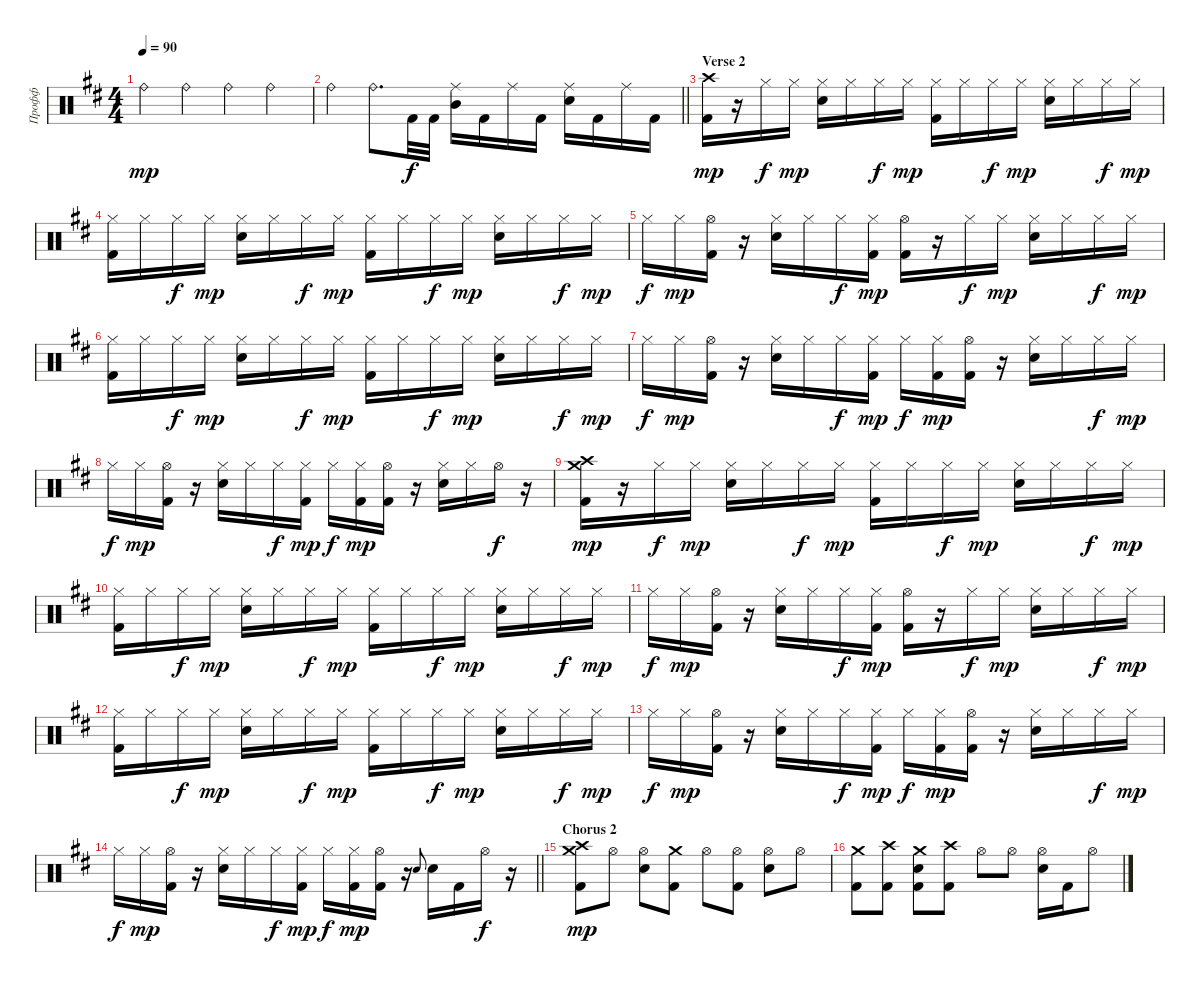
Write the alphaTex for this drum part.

\track ("Профф" "Профф") {instrument percussion}
\staff {score}
\articulation defaults
\ts (4 4)
\tempo 90
\clef neutral
\ks bminor "Ride (bell)".4{dy mp} "Ride (bell)".4 "Ride (bell)".4 "Ride (bell)".4
|
\barLineRight lightlight "Ride (bell)".4 "Ride (bell)".8{d} "Kick (hit) 2".32{dy f} "Kick (hit) 2".32
("Ride (middle)" "Mid Tom (hit)").16 "Kick (hit) 2".16 "Ride (middle)".16 "Kick (hit) 2".16 ("Ride (middle)" "Electric Snare (hit)").16 "Kick (hit) 2".16 "Ride (middle)".16 "Kick (hit) 2".16 |
\section ("" "Verse 2")
("Crash high (hit)" "Kick (hit) 2").16{dy mp} r.16 "Hi-Hat (closed)".16{dy f} "Hi-Hat (closed)".16{dy mp} ("Hi-Hat (closed)" "Electric Snare (hit)").16 "Hi-Hat (closed)".16 "Hi-Hat (closed)".16{dy f} "Hi-Hat (closed)".16{dy mp} ("Hi-Hat (closed)" "Kick (hit) 2").16 "Hi-Hat (closed)".16 "Hi-Hat (closed)".16{dy f} "Hi-Hat (closed)".16{dy mp} ("Hi-Hat (closed)" "Electric Snare (hit)").16 "Hi-Hat (closed)".16 "Hi-Hat (closed)".16{dy f} "Hi-Hat (closed)".16{dy mp} |
("Hi-Hat (closed)" "Kick (hit) 2").16 "Hi-Hat (closed)".16 "Hi-Hat (closed)".16{dy f} "Hi-Hat (closed)".16{dy mp} ("Hi-Hat (closed)" "Electric Snare (hit)").16 "Hi-Hat (closed)".16 "Hi-Hat (closed)".16{dy f} "Hi-Hat (closed)".16{dy mp} ("Hi-Hat (closed)" "Kick (hit) 2").16 "Hi-Hat (closed)".16 "Hi-Hat (closed)".16{dy f} "Hi-Hat (closed)".16{dy mp} ("Hi-Hat (closed)" "Electric Snare (hit)").16 "Hi-Hat (closed)".16 "Hi-Hat (closed)".16{dy f} "Hi-Hat (closed)".16{dy mp} |
"Hi-Hat (closed)".16{dy f} "Hi-Hat (closed)".16{dy mp} ("Hi-Hat (open)" "Kick (hit) 2").16 r.16 ("Hi-Hat (closed)" "Electric Snare (hit)").16 "Hi-Hat (closed)".16 "Hi-Hat (closed)".16{dy f} ("Hi-Hat (closed)" "Kick (hit) 2").16{dy mp} ("Hi-Hat (open)" "Kick (hit) 2").16 r.16 "Hi-Hat (closed)".16{dy f} "Hi-Hat (closed)".16{dy mp} ("Hi-Hat (closed)" "Electric Snare (hit)").16 "Hi-Hat (closed)".16 "Hi-Hat (closed)".16{dy f} "Hi-Hat (closed)".16{dy mp} |
("Hi-Hat (closed)" "Kick (hit) 2").16 "Hi-Hat (closed)".16 "Hi-Hat (closed)".16{dy f} "Hi-Hat (closed)".16{dy mp} ("Hi-Hat (closed)" "Electric Snare (hit)").16 "Hi-Hat (closed)".16 "Hi-Hat (closed)".16{dy f} "Hi-Hat (closed)".16{dy mp} ("Hi-Hat (closed)" "Kick (hit) 2").16 "Hi-Hat (closed)".16 "Hi-Hat (closed)".16{dy f} "Hi-Hat (closed)".16{dy mp} ("Hi-Hat (closed)" "Electric Snare (hit)").16 "Hi-Hat (closed)".16 "Hi-Hat (closed)".16{dy f} "Hi-Hat (closed)".16{dy mp} |
"Hi-Hat (closed)".16{dy f} "Hi-Hat (closed)".16{dy mp} ("Hi-Hat (open)" "Kick (hit) 2").16 r.16 ("Hi-Hat (closed)" "Electric Snare (hit)").16 "Hi-Hat (closed)".16 "Hi-Hat (closed)".16{dy f} ("Hi-Hat (closed)" "Kick (hit) 2").16{dy mp} "Hi-Hat (closed)".16{dy f} ("Hi-Hat (closed)" "Kick (hit) 2").16{dy mp} ("Hi-Hat (open)" "Kick (hit) 2").16 r.16 ("Hi-Hat (closed)" "Electric Snare (hit)").16 "Hi-Hat (closed)".16 "Hi-Hat (closed)".16{dy f} "Hi-Hat (closed)".16{dy mp} |
"Hi-Hat (closed)".16{dy f} "Hi-Hat (closed)".16{dy mp} ("Hi-Hat (open)" "Kick (hit) 2").16 r.16 ("Hi-Hat (closed)" "Electric Snare (hit)").16 "Hi-Hat (closed)".16 "Hi-Hat (closed)".16{dy f} ("Hi-Hat (closed)" "Kick (hit) 2").16{dy mp} "Hi-Hat (closed)".16{dy f} ("Hi-Hat (closed)" "Kick (hit) 2").16{dy mp} ("Hi-Hat (open)" "Kick (hit) 2").16 r.16 ("Hi-Hat (closed)" "Electric Snare (hit)").16 "Hi-Hat (closed)".16 "Hi-Hat (open)".16{dy f} r.16 |
("Crash high (hit)" "Crash medium (hit)" "Kick (hit) 2").16{dy mp} r.16 "Hi-Hat (closed)".16{dy f} "Hi-Hat (closed)".16{dy mp} ("Hi-Hat (closed)" "Electric Snare (hit)").16 "Hi-Hat (closed)".16 "Hi-Hat (closed)".16{dy f} "Hi-Hat (closed)".16{dy mp} ("Hi-Hat (closed)" "Kick (hit) 2").16 "Hi-Hat (closed)".16 "Hi-Hat (closed)".16{dy f} "Hi-Hat (closed)".16{dy mp} ("Hi-Hat (closed)" "Electric Snare (hit)").16 "Hi-Hat (closed)".16 "Hi-Hat (closed)".16{dy f} "Hi-Hat (closed)".16{dy mp} |
("Hi-Hat (closed)" "Kick (hit) 2").16 "Hi-Hat (closed)".16 "Hi-Hat (closed)".16{dy f} "Hi-Hat (closed)".16{dy mp} ("Hi-Hat (closed)" "Electric Snare (hit)").16 "Hi-Hat (closed)".16 "Hi-Hat (closed)".16{dy f} "Hi-Hat (closed)".16{dy mp} ("Hi-Hat (closed)" "Kick (hit) 2").16 "Hi-Hat (closed)".16 "Hi-Hat (closed)".16{dy f} "Hi-Hat (closed)".16{dy mp} ("Hi-Hat (closed)" "Electric Snare (hit)").16 "Hi-Hat (closed)".16 "Hi-Hat (closed)".16{dy f} "Hi-Hat (closed)".16{dy mp} |
"Hi-Hat (closed)".16{dy f} "Hi-Hat (closed)".16{dy mp} ("Hi-Hat (open)" "Kick (hit) 2").16 r.16 ("Hi-Hat (closed)" "Electric Snare (hit)").16 "Hi-Hat (closed)".16 "Hi-Hat (closed)".16{dy f} ("Hi-Hat (closed)" "Kick (hit) 2").16{dy mp} ("Hi-Hat (open)" "Kick (hit) 2").16 r.16 "Hi-Hat (closed)".16{dy f} "Hi-Hat (closed)".16{dy mp} ("Hi-Hat (closed)" "Electric Snare (hit)").16 "Hi-Hat (closed)".16 "Hi-Hat (closed)".16{dy f} "Hi-Hat (closed)".16{dy mp} |
("Hi-Hat (closed)" "Kick (hit) 2").16 "Hi-Hat (closed)".16 "Hi-Hat (closed)".16{dy f} "Hi-Hat (closed)".16{dy mp} ("Hi-Hat (closed)" "Electric Snare (hit)").16 "Hi-Hat (closed)".16 "Hi-Hat (closed)".16{dy f} "Hi-Hat (closed)".16{dy mp} ("Hi-Hat (closed)" "Kick (hit) 2").16 "Hi-Hat (closed)".16 "Hi-Hat (closed)".16{dy f} "Hi-Hat (closed)".16{dy mp} ("Hi-Hat (closed)" "Electric Snare (hit)").16 "Hi-Hat (closed)".16 "Hi-Hat (closed)".16{dy f} "Hi-Hat (closed)".16{dy mp} |
"Hi-Hat (closed)".16{dy f} "Hi-Hat (closed)".16{dy mp} ("Hi-Hat (open)" "Kick (hit) 2").16 r.16 ("Hi-Hat (closed)" "Electric Snare (hit)").16 "Hi-Hat (closed)".16 "Hi-Hat (closed)".16{dy f} ("Hi-Hat (closed)" "Kick (hit) 2").16{dy mp} "Hi-Hat (closed)".16{dy f} ("Hi-Hat (closed)" "Kick (hit) 2").16{dy mp} ("Hi-Hat (open)" "Kick (hit) 2").16 r.16 ("Hi-Hat (closed)" "Electric Snare (hit)").16 "Hi-Hat (closed)".16 "Hi-Hat (closed)".16{dy f} "Hi-Hat (closed)".16{dy mp} |
\barLineRight lightlight "Hi-Hat (closed)".16{dy f} "Hi-Hat (closed)".16{dy mp}
("Hi-Hat (open)" "Kick (hit) 2").16 r.16 ("Hi-Hat (closed)" "Electric Snare (hit)").16 "Hi-Hat (closed)".16 "Hi-Hat (closed)".16{dy f} ("Hi-Hat (closed)" "Kick (hit) 2").16{dy mp} "Hi-Hat (closed)".16{dy f} ("Hi-Hat (closed)" "Kick (hit) 2").16{dy mp} ("Hi-Hat (open)" "Kick (hit) 2").16 r.16 "Electric Snare (hit)".8{gr onbeat} "Electric Snare (hit)".16 "Kick (hit) 2".16 "Hi-Hat (open)".16{dy f} r.16 |
\section ("" "Chorus 2")
("Crash medium (hit)" "Crash high (hit)" "Kick (hit) 2").8{dy mp} "Hi-Hat (open)".8 ("Hi-Hat (open)" "Electric Snare (hit)").8 ("Crash medium (hit)" "Kick (hit) 2").8 "Hi-Hat (open)".8 ("Hi-Hat (open)" "Kick (hit) 2").8 ("Hi-Hat (open)" "Electric Snare (hit)").8 "Hi-Hat (open)".8 |
("Crash medium (hit)" "Kick (hit) 2").8 ("Crash high (hit)" "Kick (hit) 2").8 ("Crash medium (hit)" "Electric Snare (hit)" "Kick (hit) 2").8 ("Crash high (hit)" "Kick (hit) 2").8 "Hi-Hat (open)".8 "Hi-Hat (open)".8 ("Hi-Hat (open)" "Electric Snare (hit)").16 "Kick (hit) 2".16 "Hi-Hat (open)".8
